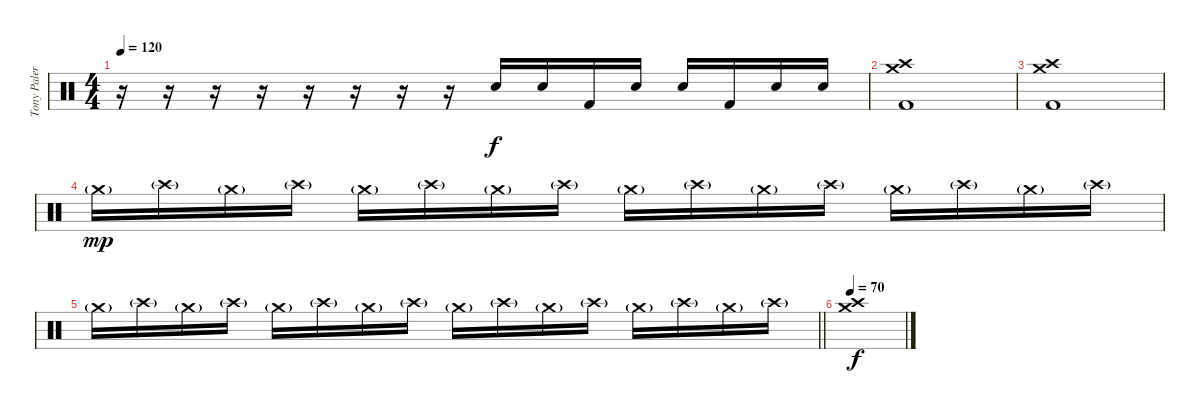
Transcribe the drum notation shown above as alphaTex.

\track ("Tony Palermo " "Tony Paler") {instrument percussion}
\staff {score}
\articulation defaults
\ts (4 4)
\tempo 120
\clef neutral
\ks c
r.16{dy f} r.16 r.16 r.16 r.16 r.16 r.16 r.16 "Snare (hit) 2".16 "Snare (hit) 2".16 "Kick (hit) 2".16 "Snare (hit) 2".16 "Snare (hit) 2".16 "Kick (hit) 2".16 "Snare (hit) 2".16 "Snare (hit) 2".16 |
("Kick (hit) 2" "Crash high (hit)" "Crash medium (hit)").1 |
("Kick (hit) 2" "Crash high (hit)" "Crash medium (hit)").1 |
"Crash medium (hit)"{g}.16{dy mp volume 5} "Crash high (hit)"{g}.16 "Crash medium (hit)"{g}.16 "Crash high (hit)"{g}.16 "Crash medium (hit)"{g}.16{volume 16} "Crash high (hit)"{g}.16 "Crash medium (hit)"{g}.16 "Crash high (hit)"{g}.16 "Crash medium (hit)"{g}.16 "Crash high (hit)"{g}.16 "Crash medium (hit)"{g}.16 "Crash high (hit)"{g}.16 "Crash medium (hit)"{g}.16 "Crash high (hit)"{g}.16 "Crash medium (hit)"{g}.16 "Crash high (hit)"{g}.16 |
\barLineRight lightlight "Crash medium (hit)"{g}.16 "Crash high (hit)"{g}.16 "Crash medium (hit)"{g}.16 "Crash high (hit)"{g}.16 "Crash medium (hit)"{g}.16 "Crash high (hit)"{g}.16 "Crash medium (hit)"{g}.16 "Crash high (hit)"{g}.16 "Crash medium (hit)"{g}.16 "Crash high (hit)"{g}.16 "Crash medium (hit)"{g}.16 "Crash high (hit)"{g}.16 "Crash medium (hit)"{g}.16 "Crash high (hit)"{g}.16 "Crash medium (hit)"{g}.16 "Crash high (hit)"{g}.16
|
\tempo 70
("Crash high (hit)" "Crash medium (hit)").1{dy f}
